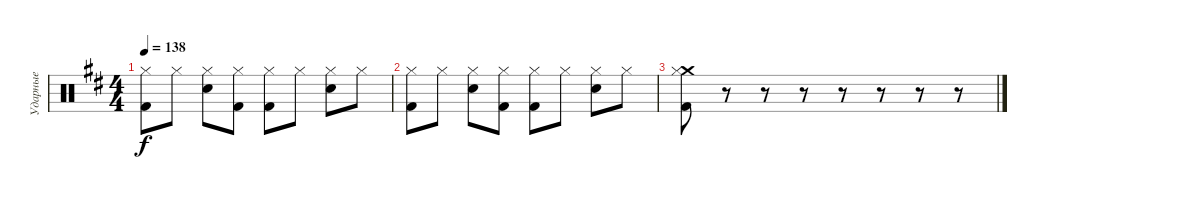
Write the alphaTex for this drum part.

\track ("Ударные" "Ударные") {instrument percussion}
\staff {score}
\articulation defaults
\ts (4 4)
\tempo 138
\clef neutral
\ks bminor
("Kick (hit) 2" "Hi-Hat (closed)").8{dy f} "Hi-Hat (closed)".8 ("Electric Snare (hit)" "Hi-Hat (closed)").8 ("Kick (hit) 2" "Hi-Hat (closed)").8 ("Kick (hit) 2" "Hi-Hat (closed)").8 "Hi-Hat (closed)".8 ("Electric Snare (hit)" "Hi-Hat (closed)").8 "Hi-Hat (closed)".8 |
("Kick (hit) 2" "Hi-Hat (closed)").8 "Hi-Hat (closed)".8 ("Electric Snare (hit)" "Hi-Hat (closed)").8 ("Kick (hit) 2" "Hi-Hat (closed)").8 ("Kick (hit) 2" "Hi-Hat (closed)").8 "Hi-Hat (closed)".8 ("Electric Snare (hit)" "Hi-Hat (closed)").8 "Hi-Hat (closed)".8 |
("Crash medium (hit)" "Kick (hit) 2" "Hi-Hat (closed)").8 r.8 r.8 r.8 r.8 r.8 r.8 r.8
